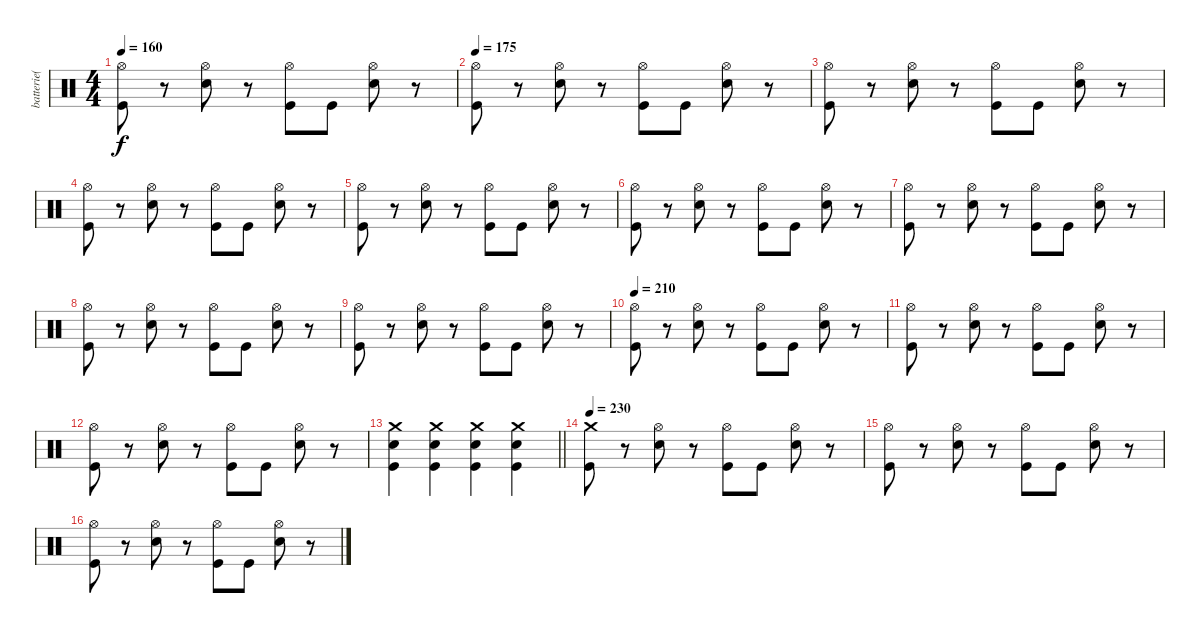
\track ("batterie( Yureesh )" "batterie( ") {instrument percussion}
\staff {score}
\articulation defaults
\ts (4 4)
\tempo 160
\clef neutral
\ks c
("Hi-Hat (open)" "Kick (hit)").8{dy f} r.8 ("Hi-Hat (open)" "Snare (hit) 2").8 r.8 ("Hi-Hat (open)" "Kick (hit)").8 "Kick (hit)".8 ("Hi-Hat (open)" "Snare (hit) 2").8 r.8 |
\tempo 175
("Hi-Hat (open)" "Kick (hit)").8 r.8 ("Hi-Hat (open)" "Snare (hit) 2").8 r.8 ("Hi-Hat (open)" "Kick (hit)").8 "Kick (hit)".8 ("Hi-Hat (open)" "Snare (hit) 2").8 r.8 |
("Hi-Hat (open)" "Kick (hit)").8 r.8 ("Hi-Hat (open)" "Snare (hit) 2").8 r.8 ("Hi-Hat (open)" "Kick (hit)").8 "Kick (hit)".8 ("Hi-Hat (open)" "Snare (hit) 2").8 r.8 |
("Hi-Hat (open)" "Kick (hit)").8 r.8 ("Hi-Hat (open)" "Snare (hit) 2").8 r.8 ("Hi-Hat (open)" "Kick (hit)").8 "Kick (hit)".8 ("Hi-Hat (open)" "Snare (hit) 2").8 r.8 |
("Hi-Hat (open)" "Kick (hit)").8 r.8 ("Hi-Hat (open)" "Snare (hit) 2").8 r.8 ("Hi-Hat (open)" "Kick (hit)").8 "Kick (hit)".8 ("Hi-Hat (open)" "Snare (hit) 2").8 r.8 |
("Hi-Hat (open)" "Kick (hit)").8 r.8 ("Hi-Hat (open)" "Snare (hit) 2").8 r.8 ("Hi-Hat (open)" "Kick (hit)").8 "Kick (hit)".8 ("Hi-Hat (open)" "Snare (hit) 2").8 r.8 |
("Hi-Hat (open)" "Kick (hit)").8 r.8 ("Hi-Hat (open)" "Snare (hit) 2").8 r.8 ("Hi-Hat (open)" "Kick (hit)").8 "Kick (hit)".8 ("Hi-Hat (open)" "Snare (hit) 2").8 r.8 |
("Hi-Hat (open)" "Kick (hit)").8 r.8 ("Hi-Hat (open)" "Snare (hit) 2").8 r.8 ("Hi-Hat (open)" "Kick (hit)").8 "Kick (hit)".8 ("Hi-Hat (open)" "Snare (hit) 2").8 r.8 |
("Hi-Hat (open)" "Kick (hit)").8 r.8 ("Hi-Hat (open)" "Snare (hit) 2").8 r.8 ("Hi-Hat (open)" "Kick (hit)").8 "Kick (hit)".8 ("Hi-Hat (open)" "Snare (hit) 2").8 r.8 |
\tempo 210
("Hi-Hat (open)" "Kick (hit)").8 r.8 ("Hi-Hat (open)" "Snare (hit) 2").8 r.8 ("Hi-Hat (open)" "Kick (hit)").8 "Kick (hit)".8 ("Hi-Hat (open)" "Snare (hit) 2").8 r.8 |
("Hi-Hat (open)" "Kick (hit)").8 r.8 ("Hi-Hat (open)" "Snare (hit) 2").8 r.8 ("Hi-Hat (open)" "Kick (hit)").8 "Kick (hit)".8 ("Hi-Hat (open)" "Snare (hit) 2").8 r.8 |
("Hi-Hat (open)" "Kick (hit)").8 r.8 ("Hi-Hat (open)" "Snare (hit) 2").8 r.8 ("Hi-Hat (open)" "Kick (hit)").8 "Kick (hit)".8 ("Hi-Hat (open)" "Snare (hit) 2").8 r.8 |
\barLineRight lightlight
("Crash medium (hit)" "Snare (hit) 2" "Kick (hit)").4 ("Crash medium (hit)" "Snare (hit) 2" "Kick (hit)").4 ("Crash medium (hit)" "Snare (hit) 2" "Kick (hit)").4 ("Crash medium (hit)" "Snare (hit) 2" "Kick (hit)").4 |
\tempo 230
("Crash medium (hit)" "Kick (hit)").8 r.8 ("Hi-Hat (open)" "Snare (hit) 2").8 r.8 ("Hi-Hat (open)" "Kick (hit)").8 "Kick (hit)".8 ("Hi-Hat (open)" "Snare (hit) 2").8 r.8 |
("Hi-Hat (open)" "Kick (hit)").8 r.8 ("Hi-Hat (open)" "Snare (hit) 2").8 r.8 ("Hi-Hat (open)" "Kick (hit)").8 "Kick (hit)".8 ("Hi-Hat (open)" "Snare (hit) 2").8 r.8 |
("Hi-Hat (open)" "Kick (hit)").8 r.8 ("Hi-Hat (open)" "Snare (hit) 2").8 r.8 ("Hi-Hat (open)" "Kick (hit)").8 "Kick (hit)".8 ("Hi-Hat (open)" "Snare (hit) 2").8 r.8
